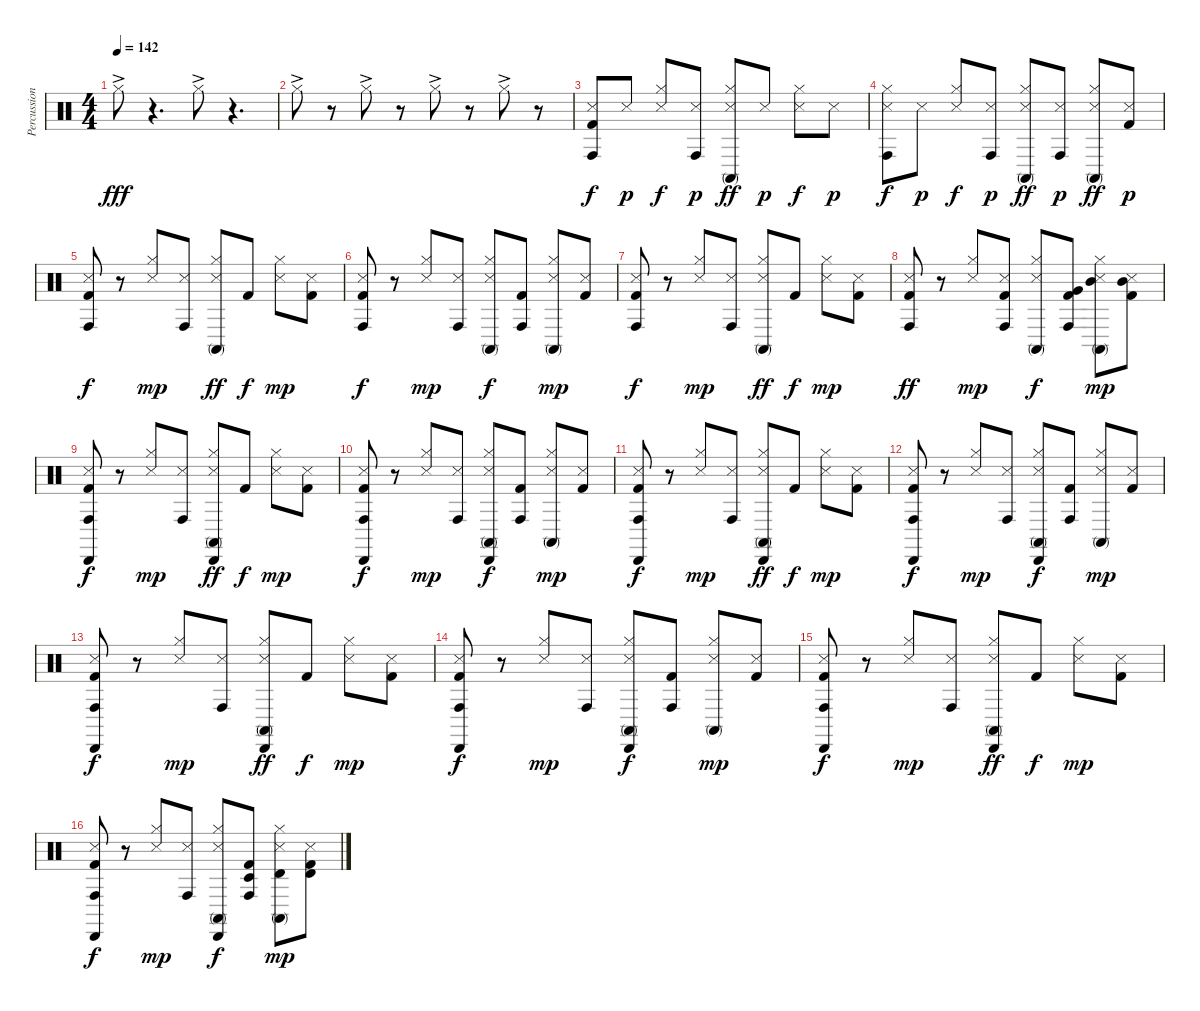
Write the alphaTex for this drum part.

\track ("Percussion Booster" "Percussion") {instrument percussion}
\staff {score}
\articulation defaults
\ts (4 4)
\tempo 142
\clef neutral
\ks c "Hi-Hat (closed)"{ac}.8{dy fff}
r.4{d} "Hi-Hat (closed)"{ac}.8 r.4{d} |
"Hi-Hat (closed)"{ac}.8 r.8 "Hi-Hat (closed)"{ac}.8 r.8 "Hi-Hat (closed)"{ac}.8 r.8 "Hi-Hat (closed)"{ac}.8 r.8 |
("Conga high (hit)" "Snare (side stick) 3" "Kick (hit) 2").8{dy f} "Snare (side stick) 3".8{dy p} ("Hi-Hat (closed)" "Snare (side stick) 3").8{dy f} ("Conga high (hit)" "Snare (side stick) 3").8{dy p} ("Conga high (mute)" "Hi-Hat (closed)" "Snare (side stick) 3").8{dy ff} "Snare (side stick) 3".8{dy p} ("Hi-Hat (closed)" "Snare (side stick) 3").8{dy f} "Snare (side stick) 3".8{dy p} |
("Conga high (hit)" "Hi-Hat (closed)" "Snare (side stick) 3").8{dy f} "Snare (side stick) 3".8{dy p} ("Hi-Hat (closed)" "Snare (side stick) 3").8{dy f} ("Conga high (hit)" "Snare (side stick) 3").8{dy p} ("Conga high (mute)" "Hi-Hat (closed)" "Snare (side stick) 3").8{dy ff} ("Conga high (hit)" "Snare (side stick) 3").8{dy p} ("Conga high (mute)" "Hi-Hat (closed)" "Snare (side stick) 3").8{dy ff} ("Snare (side stick) 3" "Kick (hit) 2").8{dy p} |
("Conga high (hit)" "Snare (side stick) 3" "Kick (hit) 2").8{dy f} r.8 ("Hi-Hat (closed)" "Snare (side stick) 3").8{dy mp} ("Conga high (hit)" "Snare (side stick) 3").8 ("Conga high (mute)" "Hi-Hat (closed)" "Snare (side stick) 3").8{dy ff} "Kick (hit) 2".8{dy f} ("Hi-Hat (closed)" "Snare (side stick) 3").8{dy mp} ("Snare (side stick) 3" "Kick (hit) 2").8 |
("Conga high (hit)" "Snare (side stick) 3" "Kick (hit) 2").8{dy f} r.8 ("Hi-Hat (closed)" "Snare (side stick) 3").8{dy mp} ("Conga high (hit)" "Snare (side stick) 3").8 ("Conga high (mute)" "Hi-Hat (closed)" "Snare (side stick) 3").8{dy f} ("Conga high (hit)" "Kick (hit) 2").8 ("Conga high (mute)" "Hi-Hat (closed)" "Snare (side stick) 3").8{dy mp} ("Snare (side stick) 3" "Kick (hit) 2").8 |
("Conga high (hit)" "Snare (side stick) 3" "Kick (hit) 2").8{dy f} r.8 ("Hi-Hat (closed)" "Snare (side stick) 3").8{dy mp} ("Conga high (hit)" "Snare (side stick) 3").8 ("Conga high (mute)" "Hi-Hat (closed)" "Snare (side stick) 3").8{dy ff} "Kick (hit) 2".8{dy f} ("Hi-Hat (closed)" "Snare (side stick) 3").8{dy mp} ("Snare (side stick) 3" "Kick (hit) 2").8 |
("Conga high (hit)" "Snare (side stick) 3" "Kick (hit) 2").8{dy ff} r.8 ("Hi-Hat (closed)" "Snare (side stick) 3").8{dy mp} ("Conga high (hit)" "Snare (side stick) 3" "Kick (hit) 2").8 ("Conga high (mute)" "Hi-Hat (closed)" "Snare (side stick) 3").8{dy f} ("Conga high (hit)" "Very Low Tom (hit)" "Kick (hit) 2").8 ("Conga high (mute)" "Mid Tom (hit)" "Hi-Hat (closed)" "Snare (side stick) 3").8{dy mp} ("Mid Tom (hit)" "Snare (side stick) 3" "Kick (hit) 2").8 |
("Conga high (hit)" "Cabasa (hit)" "Snare (side stick) 3" "Kick (hit) 2").8{dy f} r.8 ("Hi-Hat (closed)" "Snare (side stick) 3").8{dy mp} ("Conga high (hit)" "Snare (side stick) 3").8 ("Conga high (mute)" "Cabasa (hit)" "Hi-Hat (closed)" "Snare (side stick) 3").8{dy ff} "Kick (hit) 2".8{dy f} ("Hi-Hat (closed)" "Snare (side stick) 3").8{dy mp} ("Snare (side stick) 3" "Kick (hit) 2").8 |
("Conga high (hit)" "Cabasa (hit)" "Snare (side stick) 3" "Kick (hit) 2").8{dy f} r.8 ("Hi-Hat (closed)" "Snare (side stick) 3").8{dy mp} ("Conga high (hit)" "Snare (side stick) 3").8 ("Conga high (mute)" "Cabasa (hit)" "Hi-Hat (closed)" "Snare (side stick) 3").8{dy f} ("Conga high (hit)" "Kick (hit) 2").8 ("Conga high (mute)" "Hi-Hat (closed)" "Snare (side stick) 3").8{dy mp} ("Snare (side stick) 3" "Kick (hit) 2").8 |
("Conga high (hit)" "Cabasa (hit)" "Snare (side stick) 3" "Kick (hit) 2").8{dy f} r.8 ("Hi-Hat (closed)" "Snare (side stick) 3").8{dy mp} ("Conga high (hit)" "Snare (side stick) 3").8 ("Conga high (mute)" "Cabasa (hit)" "Hi-Hat (closed)" "Snare (side stick) 3").8{dy ff} "Kick (hit) 2".8{dy f} ("Hi-Hat (closed)" "Snare (side stick) 3").8{dy mp} ("Snare (side stick) 3" "Kick (hit) 2").8 |
("Conga high (hit)" "Cabasa (hit)" "Snare (side stick) 3" "Kick (hit) 2").8{dy f} r.8 ("Hi-Hat (closed)" "Snare (side stick) 3").8{dy mp} ("Conga high (hit)" "Snare (side stick) 3").8 ("Conga high (mute)" "Cabasa (hit)" "Hi-Hat (closed)" "Snare (side stick) 3").8{dy f} ("Conga high (hit)" "Kick (hit) 2").8 ("Conga high (mute)" "Hi-Hat (closed)" "Snare (side stick) 3").8{dy mp} ("Snare (side stick) 3" "Kick (hit) 2").8 |
("Conga high (hit)" "Cabasa (hit)" "Snare (side stick) 3" "Kick (hit) 2").8{dy f} r.8 ("Hi-Hat (closed)" "Snare (side stick) 3").8{dy mp} ("Conga high (hit)" "Snare (side stick) 3").8 ("Conga high (mute)" "Cabasa (hit)" "Hi-Hat (closed)" "Snare (side stick) 3").8{dy ff} "Kick (hit) 2".8{dy f} ("Hi-Hat (closed)" "Snare (side stick) 3").8{dy mp} ("Snare (side stick) 3" "Kick (hit) 2").8 |
("Conga high (hit)" "Cabasa (hit)" "Snare (side stick) 3" "Kick (hit) 2").8{dy f} r.8 ("Hi-Hat (closed)" "Snare (side stick) 3").8{dy mp} ("Conga high (hit)" "Snare (side stick) 3").8 ("Conga high (mute)" "Cabasa (hit)" "Hi-Hat (closed)" "Snare (side stick) 3").8{dy f} ("Conga high (hit)" "Kick (hit) 2").8 ("Conga high (mute)" "Hi-Hat (closed)" "Snare (side stick) 3").8{dy mp} ("Snare (side stick) 3" "Kick (hit) 2").8 |
("Conga high (hit)" "Cabasa (hit)" "Snare (side stick) 3" "Kick (hit) 2").8{dy f} r.8 ("Hi-Hat (closed)" "Snare (side stick) 3").8{dy mp} ("Conga high (hit)" "Snare (side stick) 3").8 ("Conga high (mute)" "Cabasa (hit)" "Hi-Hat (closed)" "Snare (side stick) 3").8{dy ff} "Kick (hit) 2".8{dy f} ("Hi-Hat (closed)" "Snare (side stick) 3").8{dy mp} ("Snare (side stick) 3" "Kick (hit) 2").8 |
("Conga high (hit)" "Cabasa (hit)" "Snare (side stick) 3" "Kick (hit) 2").8{dy f} r.8 ("Hi-Hat (closed)" "Snare (side stick) 3").8{dy mp} ("Conga high (hit)" "Snare (side stick) 3").8 ("Conga high (mute)" "Cabasa (hit)" "Hi-Hat (closed)" "Snare (side stick) 3").8{dy f} ("Timbale low (hit)" "Conga high (hit)" "Kick (hit) 2").8 ("Timbale high (hit)" "Conga high (mute)" "Hi-Hat (closed)" "Snare (side stick) 3").8{dy mp} ("Timbale high (hit)" "Snare (side stick) 3" "Kick (hit) 2").8
